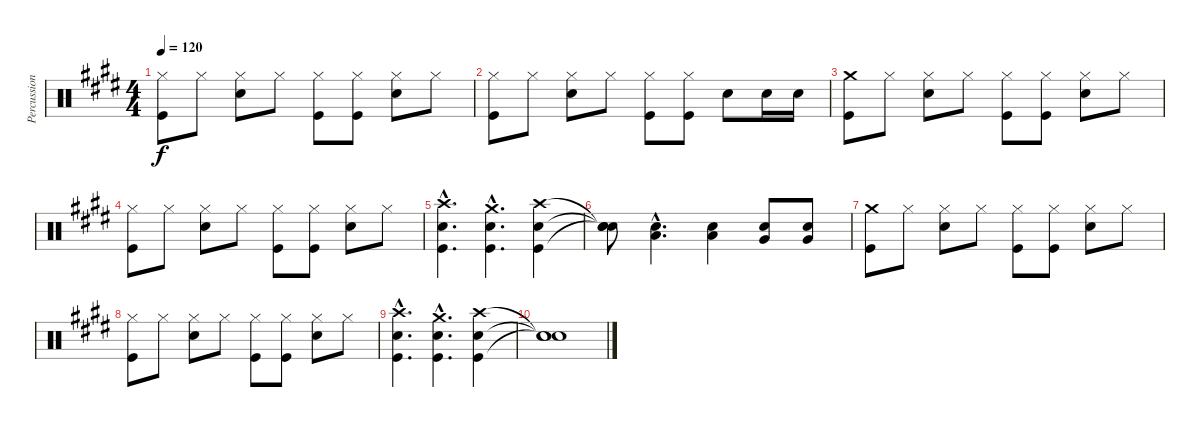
\track ("Percussion" "Percussion") {instrument percussion}
\staff {score}
\articulation defaults
\ts (4 4)
\tempo 120
\clef neutral
\ks e
("Hi-Hat (closed)" "Kick (hit)").8{dy f} "Hi-Hat (closed)".8 ("Hi-Hat (closed)" "Snare (hit) 2").8 "Hi-Hat (closed)".8 ("Hi-Hat (closed)" "Kick (hit)").8 ("Hi-Hat (closed)" "Kick (hit)").8 ("Hi-Hat (closed)" "Snare (hit) 2").8 "Hi-Hat (closed)".8 |
("Hi-Hat (closed)" "Kick (hit)").8 "Hi-Hat (closed)".8 ("Hi-Hat (closed)" "Snare (hit) 2").8 "Hi-Hat (closed)".8 ("Hi-Hat (closed)" "Kick (hit)").8 ("Hi-Hat (closed)" "Kick (hit)").8 "Snare (hit) 2".8 "Snare (hit) 2".16 "Snare (hit) 2".16 |
("Crash medium (hit)" "Kick (hit)").8 "Hi-Hat (closed)".8 ("Hi-Hat (closed)" "Snare (hit) 2").8 "Hi-Hat (closed)".8 ("Hi-Hat (closed)" "Kick (hit)").8 ("Hi-Hat (closed)" "Kick (hit)").8 ("Hi-Hat (closed)" "Snare (hit) 2").8 "Hi-Hat (closed)".8 |
("Hi-Hat (closed)" "Kick (hit)").8 "Hi-Hat (closed)".8 ("Hi-Hat (closed)" "Snare (hit) 2").8 "Hi-Hat (closed)".8 ("Hi-Hat (closed)" "Kick (hit)").8 ("Hi-Hat (closed)" "Kick (hit)").8 ("Hi-Hat (closed)" "Snare (hit) 2").8 "Hi-Hat (closed)".8 |
("Crash high (hit)"{hac} "Snare (hit) 2"{hac} "Kick (hit)"{hac}).4{d} ("Crash medium (hit)"{hac} "Snare (hit) 2"{hac} "Kick (hit)"{hac}).4{d} ("Crash high (hit)" "Snare (hit) 2" "Kick (hit)").4 |
("Snare (hit)"{t} "Snare (hit)"{t} "Snare (hit)"{t}).8 ("Low Tom (hit)"{hac} "Snare (hit) 2"{hac}).4{d} ("Low Tom (hit)" "Snare (hit) 2").4 ("Very Low Tom (hit)" "Snare (hit) 2").8 ("Very Low Tom (hit)" "Snare (hit) 2").8 |
("Crash medium (hit)" "Kick (hit)").8 "Hi-Hat (closed)".8 ("Hi-Hat (closed)" "Snare (hit) 2").8 "Hi-Hat (closed)".8 ("Hi-Hat (closed)" "Kick (hit)").8 ("Hi-Hat (closed)" "Kick (hit)").8 ("Hi-Hat (closed)" "Snare (hit) 2").8 "Hi-Hat (closed)".8 |
("Hi-Hat (closed)" "Kick (hit)").8 "Hi-Hat (closed)".8 ("Hi-Hat (closed)" "Snare (hit) 2").8 "Hi-Hat (closed)".8 ("Hi-Hat (closed)" "Kick (hit)").8 ("Hi-Hat (closed)" "Kick (hit)").8 ("Hi-Hat (closed)" "Snare (hit) 2").8 "Hi-Hat (closed)".8 |
("Crash high (hit)"{hac} "Snare (hit) 2"{hac} "Kick (hit)"{hac}).4{d} ("Crash medium (hit)"{hac} "Snare (hit) 2"{hac} "Kick (hit)"{hac}).4{d} ("Crash high (hit)" "Snare (hit) 2" "Kick (hit)").4 |
("Snare (hit)"{t} "Snare (hit)"{t} "Snare (hit)"{t}).1
